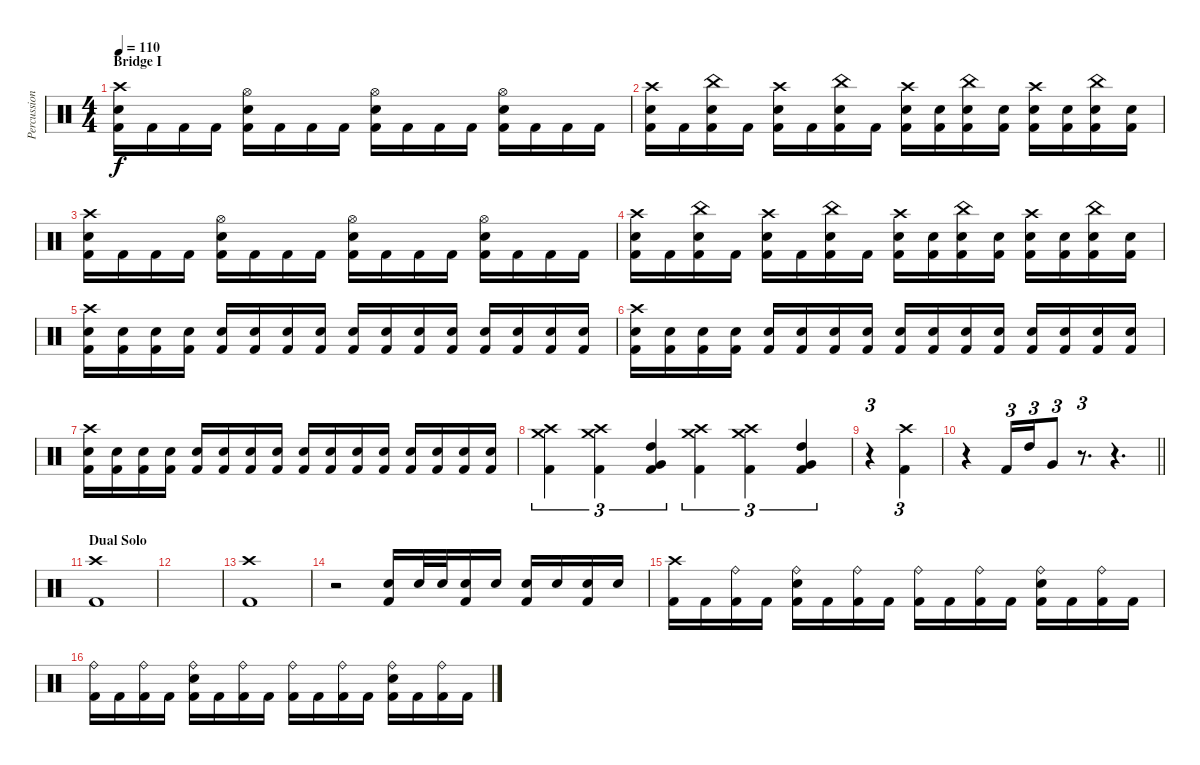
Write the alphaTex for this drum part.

\track ("Percussion" "Percussion") {instrument percussion}
\staff {score}
\articulation defaults
\ts (4 4)
\section ("" "Bridge I")
\tempo 110
\clef neutral
\ks c
("Crash high (hit)" "Electric Snare (hit)" "Kick (hit) 2").16{dy f} "Kick (hit) 2".16 "Kick (hit) 2".16 "Kick (hit) 2".16 ("Hi-Hat (open)" "Electric Snare (hit)" "Kick (hit) 2").16 "Kick (hit) 2".16 "Kick (hit) 2".16 "Kick (hit) 2".16 ("Hi-Hat (open)" "Electric Snare (hit)" "Kick (hit) 2").16 "Kick (hit) 2".16 "Kick (hit) 2".16 "Kick (hit) 2".16 ("Hi-Hat (open)" "Electric Snare (hit)" "Kick (hit) 2").16 "Kick (hit) 2".16 "Kick (hit) 2".16 "Kick (hit) 2".16 |
("Crash high (hit)" "Electric Snare (hit)" "Kick (hit) 2").16 "Kick (hit) 2".16 ("China (hit)" "Electric Snare (hit)" "Kick (hit) 2").16 "Kick (hit) 2".16 ("Crash high (hit)" "Electric Snare (hit)" "Kick (hit) 2").16 "Kick (hit) 2".16 ("China (hit)" "Electric Snare (hit)" "Kick (hit) 2").16 "Kick (hit) 2".16 ("Crash high (hit)" "Electric Snare (hit)" "Kick (hit) 2").16 ("Electric Snare (hit)" "Kick (hit) 2").16 ("China (hit)" "Electric Snare (hit)" "Kick (hit) 2").16 ("Electric Snare (hit)" "Kick (hit) 2").16 ("Crash high (hit)" "Electric Snare (hit)" "Kick (hit) 2").16 ("Electric Snare (hit)" "Kick (hit) 2").16 ("China (hit)" "Electric Snare (hit)" "Kick (hit) 2").16 ("Electric Snare (hit)" "Kick (hit) 2").16 |
("Crash high (hit)" "Electric Snare (hit)" "Kick (hit) 2").16 "Kick (hit) 2".16 "Kick (hit) 2".16 "Kick (hit) 2".16 ("Hi-Hat (open)" "Electric Snare (hit)" "Kick (hit) 2").16 "Kick (hit) 2".16 "Kick (hit) 2".16 "Kick (hit) 2".16 ("Hi-Hat (open)" "Electric Snare (hit)" "Kick (hit) 2").16 "Kick (hit) 2".16 "Kick (hit) 2".16 "Kick (hit) 2".16 ("Hi-Hat (open)" "Electric Snare (hit)" "Kick (hit) 2").16 "Kick (hit) 2".16 "Kick (hit) 2".16 "Kick (hit) 2".16 |
("Crash high (hit)" "Electric Snare (hit)" "Kick (hit) 2").16 "Kick (hit) 2".16 ("China (hit)" "Electric Snare (hit)" "Kick (hit) 2").16 "Kick (hit) 2".16 ("Crash high (hit)" "Electric Snare (hit)" "Kick (hit) 2").16 "Kick (hit) 2".16 ("China (hit)" "Electric Snare (hit)" "Kick (hit) 2").16 "Kick (hit) 2".16 ("Crash high (hit)" "Electric Snare (hit)" "Kick (hit) 2").16 ("Electric Snare (hit)" "Kick (hit) 2").16 ("China (hit)" "Electric Snare (hit)" "Kick (hit) 2").16 ("Electric Snare (hit)" "Kick (hit) 2").16 ("Crash high (hit)" "Electric Snare (hit)" "Kick (hit) 2").16 ("Electric Snare (hit)" "Kick (hit) 2").16 ("China (hit)" "Electric Snare (hit)" "Kick (hit) 2").16 ("Electric Snare (hit)" "Kick (hit) 2").16 |
("Crash high (hit)" "Electric Snare (hit)" "Kick (hit) 2").16 ("Electric Snare (hit)" "Kick (hit) 2").16 ("Electric Snare (hit)" "Kick (hit) 2").16 ("Electric Snare (hit)" "Kick (hit) 2").16 ("Electric Snare (hit)" "Kick (hit) 2").16 ("Electric Snare (hit)" "Kick (hit) 2").16 ("Electric Snare (hit)" "Kick (hit) 2").16 ("Electric Snare (hit)" "Kick (hit) 2").16 ("Electric Snare (hit)" "Kick (hit) 2").16 ("Electric Snare (hit)" "Kick (hit) 2").16 ("Electric Snare (hit)" "Kick (hit) 2").16 ("Electric Snare (hit)" "Kick (hit) 2").16 ("Electric Snare (hit)" "Kick (hit) 2").16 ("Electric Snare (hit)" "Kick (hit) 2").16 ("Electric Snare (hit)" "Kick (hit) 2").16 ("Electric Snare (hit)" "Kick (hit) 2").16 |
("Crash high (hit)" "Electric Snare (hit)" "Kick (hit) 2").16 ("Electric Snare (hit)" "Kick (hit) 2").16 ("Electric Snare (hit)" "Kick (hit) 2").16 ("Electric Snare (hit)" "Kick (hit) 2").16 ("Electric Snare (hit)" "Kick (hit) 2").16 ("Electric Snare (hit)" "Kick (hit) 2").16 ("Electric Snare (hit)" "Kick (hit) 2").16 ("Electric Snare (hit)" "Kick (hit) 2").16 ("Electric Snare (hit)" "Kick (hit) 2").16 ("Electric Snare (hit)" "Kick (hit) 2").16 ("Electric Snare (hit)" "Kick (hit) 2").16 ("Electric Snare (hit)" "Kick (hit) 2").16 ("Electric Snare (hit)" "Kick (hit) 2").16 ("Electric Snare (hit)" "Kick (hit) 2").16 ("Electric Snare (hit)" "Kick (hit) 2").16 ("Electric Snare (hit)" "Kick (hit) 2").16 |
("Crash high (hit)" "Electric Snare (hit)" "Kick (hit) 2").16 ("Electric Snare (hit)" "Kick (hit) 2").16 ("Electric Snare (hit)" "Kick (hit) 2").16 ("Electric Snare (hit)" "Kick (hit) 2").16 ("Electric Snare (hit)" "Kick (hit) 2").16 ("Electric Snare (hit)" "Kick (hit) 2").16 ("Electric Snare (hit)" "Kick (hit) 2").16 ("Electric Snare (hit)" "Kick (hit) 2").16 ("Electric Snare (hit)" "Kick (hit) 2").16 ("Electric Snare (hit)" "Kick (hit) 2").16 ("Electric Snare (hit)" "Kick (hit) 2").16 ("Electric Snare (hit)" "Kick (hit) 2").16 ("Electric Snare (hit)" "Kick (hit) 2").16 ("Electric Snare (hit)" "Kick (hit) 2").16 ("Electric Snare (hit)" "Kick (hit) 2").16 ("Electric Snare (hit)" "Kick (hit) 2").16 |
("Crash high (hit)" "Crash medium (hit)" "Kick (hit) 2").4{tu (3 2)} ("Crash high (hit)" "Crash medium (hit)" "Kick (hit) 2").4{tu (3 2)} ("Very Low Tom (hit)" "High Tom (hit)" "Kick (hit) 2").4{tu (3 2)} ("Crash high (hit)" "Crash medium (hit)" "Kick (hit) 2").4{tu (3 2)} ("Crash high (hit)" "Crash medium (hit)" "Kick (hit) 2").4{tu (3 2)} ("Very Low Tom (hit)" "High Tom (hit)" "Kick (hit) 2").4{tu (3 2)} |
r.4{tu (3 2)} ("Crash high (hit)" "Kick (hit) 2").4{tu (3 2)} |
\barLineRight lightlight
r.4 "Kick (hit) 2".16{tu (3 2)} "High Tom (hit)".16{tu (3 2)} "Very Low Tom (hit)".8{tu (3 2)} r.8{d tu (3 2)} r.4{d} |
\section ("" "Dual Solo")
("Crash high (hit)" "Kick (hit) 2").1 |
|
("Crash high (hit)" "Kick (hit) 2").1 |
r.2 ("Electric Snare (hit)" "Kick (hit) 2").16 "Electric Snare (hit)".32 "Electric Snare (hit)".32 ("Electric Snare (hit)" "Kick (hit) 2").16 "Electric Snare (hit)".16 ("Electric Snare (hit)" "Kick (hit) 2").16 "Electric Snare (hit)".16 ("Electric Snare (hit)" "Kick (hit) 2").16 "Electric Snare (hit)".16 |
("Crash high (hit)" "Kick (hit) 2").16 "Kick (hit) 2".16 ("Ride (bell)" "Kick (hit) 2").16 "Kick (hit) 2".16 ("Ride (bell)" "Electric Snare (hit)" "Kick (hit) 2").16 "Kick (hit) 2".16 ("Ride (bell)" "Kick (hit) 2").16 "Kick (hit) 2".16 ("Ride (bell)" "Kick (hit) 2").16 "Kick (hit) 2".16 ("Ride (bell)" "Kick (hit) 2").16 "Kick (hit) 2".16 ("Ride (bell)" "Electric Snare (hit)" "Kick (hit) 2").16 "Kick (hit) 2".16 ("Ride (bell)" "Kick (hit) 2").16 "Kick (hit) 2".16 |
("Ride (bell)" "Kick (hit) 2").16 "Kick (hit) 2".16 ("Ride (bell)" "Kick (hit) 2").16 "Kick (hit) 2".16 ("Ride (bell)" "Electric Snare (hit)" "Kick (hit) 2").16 "Kick (hit) 2".16 ("Ride (bell)" "Kick (hit) 2").16 "Kick (hit) 2".16 ("Ride (bell)" "Kick (hit) 2").16 "Kick (hit) 2".16 ("Ride (bell)" "Kick (hit) 2").16 "Kick (hit) 2".16 ("Ride (bell)" "Electric Snare (hit)" "Kick (hit) 2").16 "Kick (hit) 2".16 ("Ride (bell)" "Kick (hit) 2").16 "Kick (hit) 2".16
